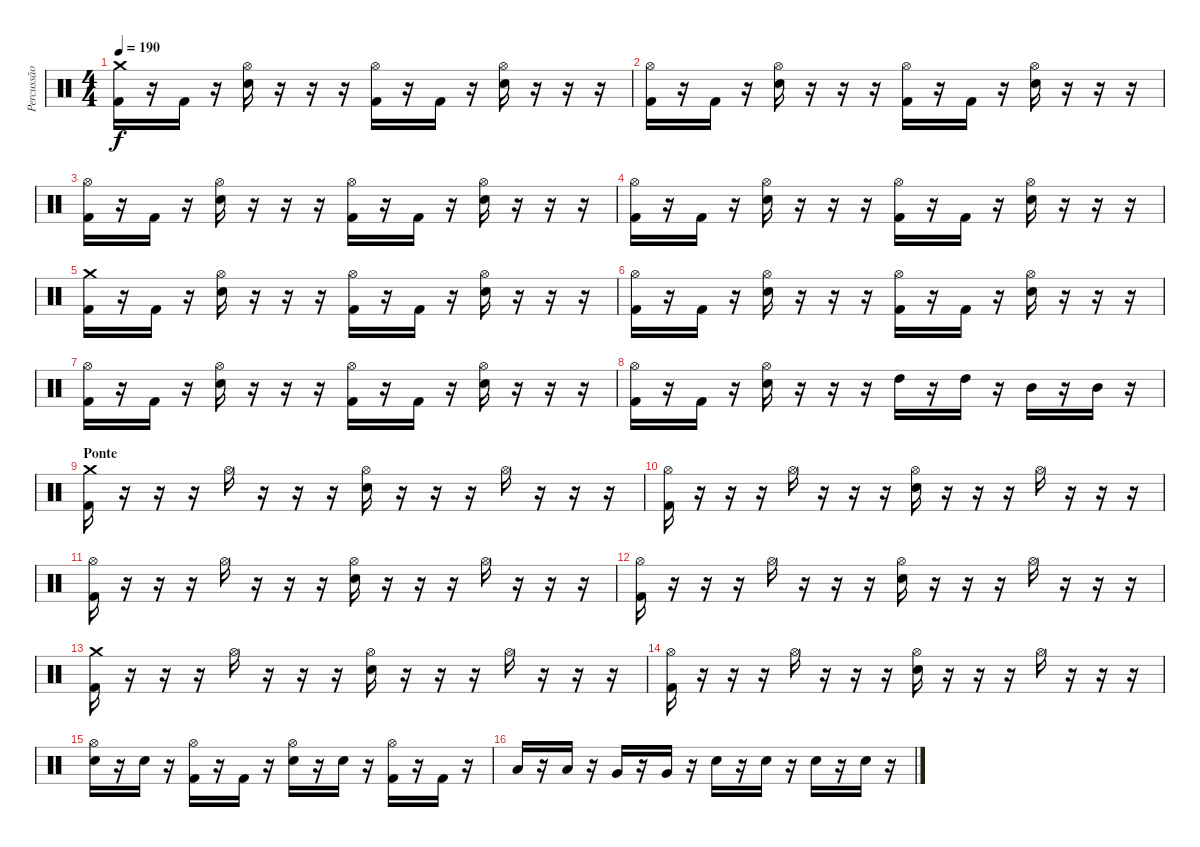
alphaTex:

\track ("Percussão" "Percussão") {instrument percussion}
\staff {score}
\articulation defaults
\ts (4 4)
\tempo 190
\clef neutral
\ks c
("Crash medium (hit)" "Kick (hit) 2").16{dy f} r.16 "Kick (hit) 2".16 r.16 ("Hi-Hat (open)" "Electric Snare (hit)").16 r.16 r.16 r.16 ("Hi-Hat (open)" "Kick (hit) 2").16 r.16 "Kick (hit) 2".16 r.16 ("Hi-Hat (open)" "Electric Snare (hit)").16 r.16 r.16 r.16 |
("Hi-Hat (open)" "Kick (hit) 2").16 r.16 "Kick (hit) 2".16 r.16 ("Hi-Hat (open)" "Electric Snare (hit)").16 r.16 r.16 r.16 ("Hi-Hat (open)" "Kick (hit) 2").16 r.16 "Kick (hit) 2".16 r.16 ("Hi-Hat (open)" "Electric Snare (hit)").16 r.16 r.16 r.16 |
("Hi-Hat (open)" "Kick (hit) 2").16 r.16 "Kick (hit) 2".16 r.16 ("Hi-Hat (open)" "Electric Snare (hit)").16 r.16 r.16 r.16 ("Hi-Hat (open)" "Kick (hit) 2").16 r.16 "Kick (hit) 2".16 r.16 ("Hi-Hat (open)" "Electric Snare (hit)").16 r.16 r.16 r.16 |
("Hi-Hat (open)" "Kick (hit) 2").16 r.16 "Kick (hit) 2".16 r.16 ("Hi-Hat (open)" "Electric Snare (hit)").16 r.16 r.16 r.16 ("Hi-Hat (open)" "Kick (hit) 2").16 r.16 "Kick (hit) 2".16 r.16 ("Hi-Hat (open)" "Electric Snare (hit)").16 r.16 r.16 r.16 |
("Crash medium (hit)" "Kick (hit) 2").16 r.16 "Kick (hit) 2".16 r.16 ("Hi-Hat (open)" "Electric Snare (hit)").16 r.16 r.16 r.16 ("Hi-Hat (open)" "Kick (hit) 2").16 r.16 "Kick (hit) 2".16 r.16 ("Hi-Hat (open)" "Electric Snare (hit)").16 r.16 r.16 r.16 |
("Hi-Hat (open)" "Kick (hit) 2").16 r.16 "Kick (hit) 2".16 r.16 ("Hi-Hat (open)" "Electric Snare (hit)").16 r.16 r.16 r.16 ("Hi-Hat (open)" "Kick (hit) 2").16 r.16 "Kick (hit) 2".16 r.16 ("Hi-Hat (open)" "Electric Snare (hit)").16 r.16 r.16 r.16 |
("Hi-Hat (open)" "Kick (hit) 2").16 r.16 "Kick (hit) 2".16 r.16 ("Hi-Hat (open)" "Electric Snare (hit)").16 r.16 r.16 r.16 ("Hi-Hat (open)" "Kick (hit) 2").16 r.16 "Kick (hit) 2".16 r.16 ("Hi-Hat (open)" "Electric Snare (hit)").16 r.16 r.16 r.16 |
("Hi-Hat (open)" "Kick (hit) 2").16 r.16 "Kick (hit) 2".16 r.16 ("Hi-Hat (open)" "Electric Snare (hit)").16 r.16 r.16 r.16 "High Tom (hit)".16 r.16 "High Tom (hit)".16 r.16 "Mid Tom (hit)".16 r.16 "Mid Tom (hit)".16 r.16 |
\section ("" "Ponte")
("Crash medium (hit)" "Kick (hit) 2").16 r.16 r.16 r.16 "Hi-Hat (open)".16 r.16 r.16 r.16 ("Hi-Hat (open)" "Electric Snare (hit)").16 r.16 r.16 r.16 "Hi-Hat (open)".16 r.16 r.16 r.16 |
("Hi-Hat (open)" "Kick (hit) 2").16 r.16 r.16 r.16 "Hi-Hat (open)".16 r.16 r.16 r.16 ("Hi-Hat (open)" "Electric Snare (hit)").16 r.16 r.16 r.16 "Hi-Hat (open)".16 r.16 r.16 r.16 |
("Hi-Hat (open)" "Kick (hit) 2").16 r.16 r.16 r.16 "Hi-Hat (open)".16 r.16 r.16 r.16 ("Hi-Hat (open)" "Electric Snare (hit)").16 r.16 r.16 r.16 "Hi-Hat (open)".16 r.16 r.16 r.16 |
("Hi-Hat (open)" "Kick (hit) 2").16 r.16 r.16 r.16 "Hi-Hat (open)".16 r.16 r.16 r.16 ("Hi-Hat (open)" "Electric Snare (hit)").16 r.16 r.16 r.16 "Hi-Hat (open)".16 r.16 r.16 r.16 |
("Crash medium (hit)" "Kick (hit) 2").16 r.16 r.16 r.16 "Hi-Hat (open)".16 r.16 r.16 r.16 ("Hi-Hat (open)" "Electric Snare (hit)").16 r.16 r.16 r.16 "Hi-Hat (open)".16 r.16 r.16 r.16 |
("Hi-Hat (open)" "Kick (hit) 2").16 r.16 r.16 r.16 "Hi-Hat (open)".16 r.16 r.16 r.16 ("Hi-Hat (open)" "Electric Snare (hit)").16 r.16 r.16 r.16 "Hi-Hat (open)".16 r.16 r.16 r.16 |
("Hi-Hat (open)" "Electric Snare (hit)").16 r.16 "Electric Snare (hit)".16 r.16 ("Hi-Hat (open)" "Kick (hit) 2").16 r.16 "Kick (hit) 2".16 r.16 ("Hi-Hat (open)" "Electric Snare (hit)").16 r.16 "Electric Snare (hit)".16 r.16 ("Hi-Hat (open)" "Kick (hit) 2").16 r.16 "Kick (hit) 2".16 r.16 |
"Low Tom (hit)".16 r.16 "Low Tom (hit)".16 r.16 "Very Low Tom (hit)".16 r.16 "Very Low Tom (hit)".16 r.16 "Electric Snare (hit)".16 r.16 "Electric Snare (hit)".16 r.16 "Electric Snare (hit)".16 r.16 "Electric Snare (hit)".16 r.16
